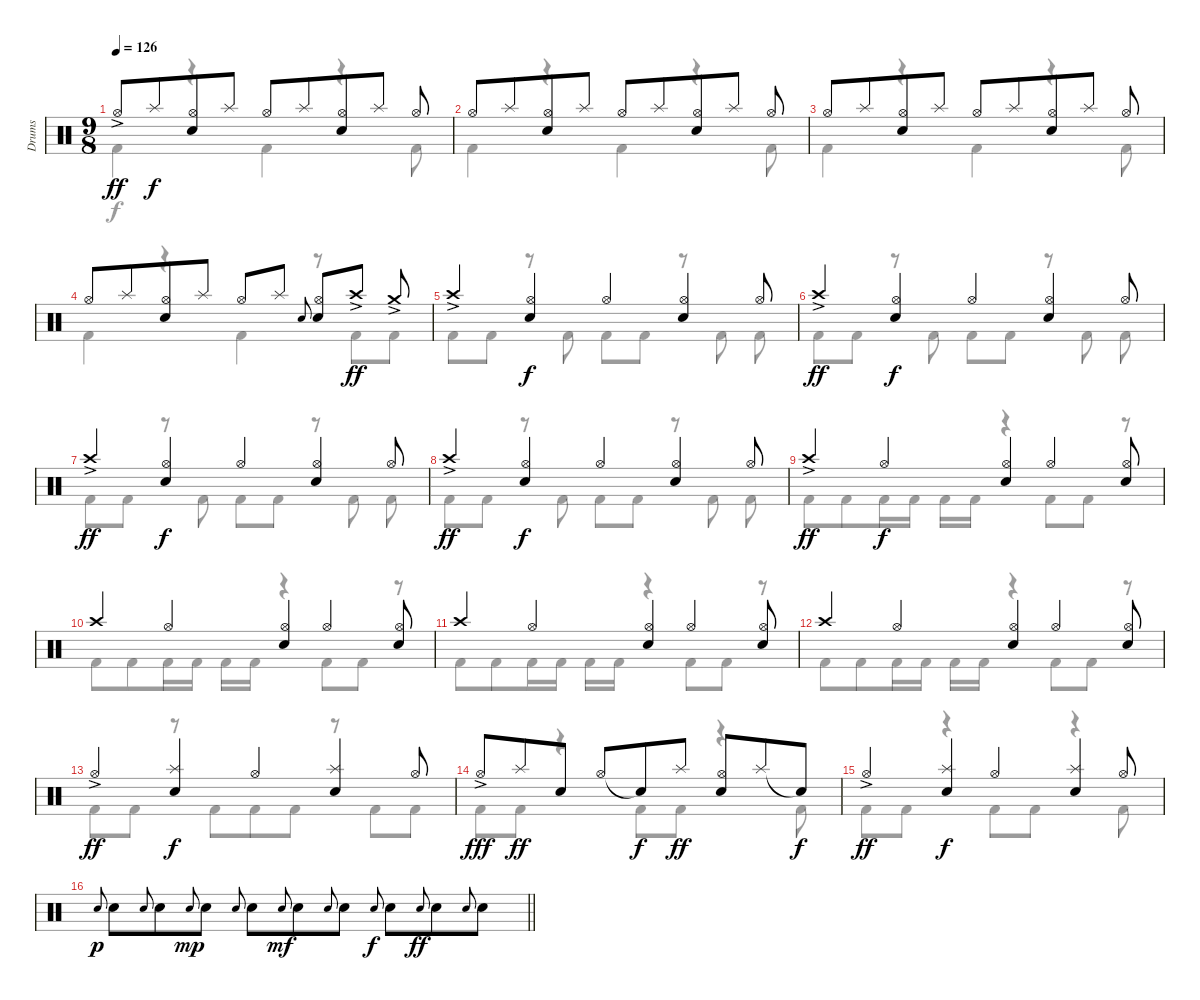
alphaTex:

\track ("Drums" "Drums") {instrument percussion}
\staff {score}
\articulation defaults
\voice
\ts (9 8)
\tempo 126
\clef neutral
\ks c "Hi-Hat (open)"{ac}.8{dy ff} "Splash (hit)".8{dy f}
("Hi-Hat (open)" "Electric Snare (hit)").8{beam merge} "Splash (hit)".8{beam split} "Hi-Hat (open)".8 "Splash (hit)".8{beam merge} ("Hi-Hat (open)" "Electric Snare (hit)").8 "Splash (hit)".8{beam split} "Hi-Hat (open)".8 |
"Hi-Hat (open)".8 "Splash (hit)".8 ("Hi-Hat (open)" "Electric Snare (hit)").8{beam merge} "Splash (hit)".8{beam split} "Hi-Hat (open)".8 "Splash (hit)".8{beam merge} ("Hi-Hat (open)" "Electric Snare (hit)").8 "Splash (hit)".8{beam split} "Hi-Hat (open)".8 |
"Hi-Hat (open)".8 "Splash (hit)".8 ("Hi-Hat (open)" "Electric Snare (hit)").8{beam merge} "Splash (hit)".8{beam split} "Hi-Hat (open)".8 "Splash (hit)".8{beam merge} ("Hi-Hat (open)" "Electric Snare (hit)").8{beam merge} "Splash (hit)".8{beam split} "Hi-Hat (open)".8 |
"Hi-Hat (open)".8 "Splash (hit)".8 ("Hi-Hat (open)" "Electric Snare (hit)").8{beam merge} "Splash (hit)".8{beam split} "Hi-Hat (open)".8 "Splash (hit)".8 "Electric Snare (hit)".8{gr onbeat beam merge} ("Hi-Hat (open)" "Electric Snare (hit)").8{beam merge} "Crash high (hit)"{ac}.8{dy ff beam split} "Crash medium (hit)"{ac}.8 |
"Crash high (hit)"{ac}.4 ("Hi-Hat (open)" "Electric Snare (hit)").4{dy f} "Hi-Hat (open)".4 ("Hi-Hat (open)" "Electric Snare (hit)").4 "Hi-Hat (open)".8 |
"Crash high (hit)"{ac}.4{dy ff} ("Hi-Hat (open)" "Electric Snare (hit)").4{dy f} "Hi-Hat (open)".4 ("Hi-Hat (open)" "Electric Snare (hit)").4 "Hi-Hat (open)".8 |
"Crash high (hit)"{ac}.4{dy ff} ("Hi-Hat (open)" "Electric Snare (hit)").4{dy f} "Hi-Hat (open)".4 ("Hi-Hat (open)" "Electric Snare (hit)").4 "Hi-Hat (open)".8 |
"Crash high (hit)"{ac}.4{dy ff} ("Hi-Hat (open)" "Electric Snare (hit)").4{dy f} "Hi-Hat (open)".4 ("Hi-Hat (open)" "Electric Snare (hit)").4 "Hi-Hat (open)".8 |
"Crash high (hit)"{ac}.4{dy ff} "Hi-Hat (open)".4{dy f} ("Hi-Hat (open)" "Electric Snare (hit)").4 "Hi-Hat (open)".4 ("Hi-Hat (open)" "Electric Snare (hit)").8 |
"Crash high (hit)".4 "Hi-Hat (open)".4 ("Hi-Hat (open)" "Electric Snare (hit)").4 "Hi-Hat (open)".4 ("Hi-Hat (open)" "Electric Snare (hit)").8 |
"Crash high (hit)".4 "Hi-Hat (open)".4 ("Hi-Hat (open)" "Electric Snare (hit)").4 "Hi-Hat (open)".4 ("Hi-Hat (open)" "Electric Snare (hit)").8 |
"Crash high (hit)".4 "Hi-Hat (open)".4 ("Hi-Hat (open)" "Electric Snare (hit)").4 "Hi-Hat (open)".4 ("Hi-Hat (open)" "Electric Snare (hit)").8 |
"Hi-Hat (open)"{ac}.4{dy ff} ("Splash (hit)" "Electric Snare (hit)").4{dy f} "Hi-Hat (open)".4 ("Splash (hit)" "Electric Snare (hit)").4 "Hi-Hat (open)".8 |
"Hi-Hat (open)"{ac}.8{dy fff} "Splash (hit)".8{dy ff} "Electric Snare (hit)".8 "Hi-Hat (open)".8 "Snare (hit)"{t}.8{dy f} "Splash (hit)".8{dy ff} ("Hi-Hat (open)" "Electric Snare (hit)").8 "Splash (hit)".8 "Snare (hit)"{t}.8{dy f} |
"Hi-Hat (open)"{ac}.4{dy ff} ("Splash (hit)" "Electric Snare (hit)").4{dy f} "Hi-Hat (open)".4 ("Splash (hit)" "Electric Snare (hit)").4 "Hi-Hat (open)".8 |
\barLineRight lightlight "Electric Snare (hit)".8{gr onbeat dy p} "Electric Snare (hit)".8 "Electric Snare (hit)".8{gr onbeat} "Electric Snare (hit)".8 "Electric Snare (hit)".8{gr onbeat dy mp} "Electric Snare (hit)".8 "Electric Snare (hit)".8{gr onbeat} "Electric Snare (hit)".8 "Electric Snare (hit)".8{gr onbeat dy mf} "Electric Snare (hit)".8 "Electric Snare (hit)".8{gr onbeat} "Electric Snare (hit)".8 "Electric Snare (hit)".8{gr onbeat dy f} "Electric Snare (hit)".8 "Electric Snare (hit)".8{gr onbeat dy ff} "Electric Snare (hit)".8 "Electric Snare (hit)".8{gr onbeat} "Electric Snare (hit)".8
\voice
\clef neutral
\ottava regular
\simile none
\ks c "Kick (hit) 2".4{dy f}
r.4 "Kick (hit) 2".4 r.4 "Kick (hit) 2".8 |
"Kick (hit) 2".4 r.4 "Kick (hit) 2".4 r.4 "Kick (hit) 2".8 |
"Kick (hit) 2".4 r.4 "Kick (hit) 2".4 r.4 "Kick (hit) 2".8 |
"Kick (hit) 2".4 r.4 "Kick (hit) 2".4 r.8 "Kick (hit) 2".8 "Kick (hit) 2".8 |
"Kick (hit) 2".8 "Kick (hit) 2".8 r.8 "Kick (hit) 2".8{beam Down beam split} "Kick (hit) 2".8{beam Down} "Kick (hit) 2".8{beam Down} r.8 "Kick (hit) 2".8{beam split} "Kick (hit) 2".8 |
"Kick (hit) 2".8 "Kick (hit) 2".8 r.8 "Kick (hit) 2".8{beam Down beam split} "Kick (hit) 2".8{beam Down} "Kick (hit) 2".8{beam Down} r.8 "Kick (hit) 2".8{beam split} "Kick (hit) 2".8 |
"Kick (hit) 2".8 "Kick (hit) 2".8 r.8 "Kick (hit) 2".8{beam Down beam split} "Kick (hit) 2".8{beam Down} "Kick (hit) 2".8{beam Down} r.8 "Kick (hit) 2".8{beam split} "Kick (hit) 2".8 |
"Kick (hit) 2".8 "Kick (hit) 2".8 r.8 "Kick (hit) 2".8{beam Down beam split} "Kick (hit) 2".8{beam Down} "Kick (hit) 2".8{beam Down} r.8 "Kick (hit) 2".8{beam split} "Kick (hit) 2".8 |
"Kick (hit) 2".8 "Kick (hit) 2".8 "Kick (hit) 2".16 "Kick (hit) 2".16 "Kick (hit) 2".16 "Kick (hit) 2".16 r.4 "Kick (hit) 2".8 "Kick (hit) 2".8 r.8 |
"Kick (hit) 2".8 "Kick (hit) 2".8 "Kick (hit) 2".16 "Kick (hit) 2".16 "Kick (hit) 2".16 "Kick (hit) 2".16 r.4 "Kick (hit) 2".8 "Kick (hit) 2".8 r.8 |
"Kick (hit) 2".8 "Kick (hit) 2".8 "Kick (hit) 2".16 "Kick (hit) 2".16 "Kick (hit) 2".16 "Kick (hit) 2".16 r.4 "Kick (hit) 2".8 "Kick (hit) 2".8 r.8 |
"Kick (hit) 2".8 "Kick (hit) 2".8 "Kick (hit) 2".16 "Kick (hit) 2".16 "Kick (hit) 2".16 "Kick (hit) 2".16 r.4 "Kick (hit) 2".8 "Kick (hit) 2".8 r.8 |
"Kick (hit) 2".8{dy ff} "Kick (hit) 2".8 r.8 "Kick (hit) 2".8 "Kick (hit) 2".8 "Kick (hit) 2".8 r.8 "Kick (hit) 2".8 "Kick (hit) 2".8 |
"Kick (hit) 2".8 "Kick (hit) 2".8 r.4 "Kick (hit) 2".8 "Kick (hit) 2".8 r.4 "Kick (hit) 2".8 |
"Kick (hit) 2".8 "Kick (hit) 2".8 r.4 "Kick (hit) 2".8 "Kick (hit) 2".8 r.4 "Kick (hit) 2".8 |
\barLineRight lightlight
